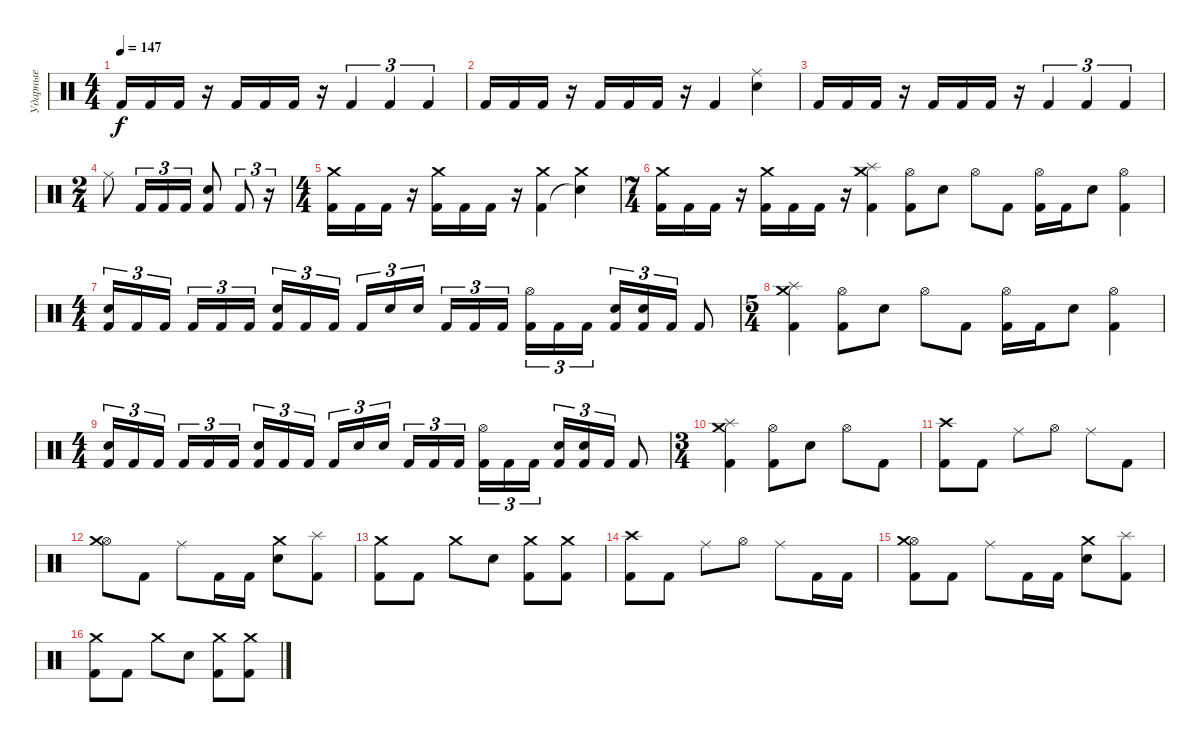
\track ("Ударные" "Ударные") {instrument percussion}
\staff {score}
\articulation defaults
\ts (4 4)
\tempo 147
\clef neutral
\ks c "Kick (hit) 2".16{dy f} "Kick (hit) 2".16 "Kick (hit) 2".16
r.16 "Kick (hit) 2".16 "Kick (hit) 2".16 "Kick (hit) 2".16 r.16 "Kick (hit) 2".4{tu (3 2)} "Kick (hit) 2".4{tu (3 2)} "Kick (hit) 2".4{tu (3 2)} |
"Kick (hit) 2".16 "Kick (hit) 2".16 "Kick (hit) 2".16 r.16 "Kick (hit) 2".16 "Kick (hit) 2".16 "Kick (hit) 2".16 r.16 "Kick (hit) 2".4 ("Ride (middle)" "Snare (hit)"{t}).4 |
"Kick (hit) 2".16 "Kick (hit) 2".16 "Kick (hit) 2".16 r.16 "Kick (hit) 2".16 "Kick (hit) 2".16 "Kick (hit) 2".16 r.16 "Kick (hit) 2".4{tu (3 2)} "Kick (hit) 2".4{tu (3 2)} "Kick (hit) 2".4{tu (3 2)} |
\ts (2 4)
"Ride (middle)".8 "Kick (hit) 2".16{tu (3 2)} "Kick (hit) 2".16{tu (3 2)} "Kick (hit) 2".16{tu (3 2)} ("Electric Snare (hit)" "Kick (hit) 2").8 "Kick (hit) 2".8{tu (3 2)} r.16{tu (3 2)} |
\ts (4 4)
("Crash medium (hit)" "Kick (hit) 2").16 "Kick (hit) 2".16 "Kick (hit) 2".16 r.16 ("Crash medium (hit)" "Kick (hit) 2").16 "Kick (hit) 2".16 "Kick (hit) 2".16 r.16 ("Crash medium (hit)" "Kick (hit) 2").4 ("Crash medium (hit)" "Snare (hit)"{t}).4 |
\ts (7 4)
("Crash medium (hit)" "Kick (hit) 2").16 "Kick (hit) 2".16 "Kick (hit) 2".16 r.16 ("Crash medium (hit)" "Kick (hit) 2").16 "Kick (hit) 2".16 "Kick (hit) 2".16 r.16 ("Crash medium (hit)" "Splash (hit)" "Kick (hit) 2").4 ("Hi-Hat (open)" "Kick (hit) 2").8 "Electric Snare (hit)".8 "Hi-Hat (open)".8 "Kick (hit) 2".8 ("Hi-Hat (open)" "Kick (hit) 2").16 "Kick (hit) 2".16 "Electric Snare (hit)".8 ("Hi-Hat (open)" "Kick (hit) 2").4 |
\ts (4 4)
("Electric Snare (hit)" "Kick (hit) 2").16{tu (3 2)} "Kick (hit) 2".16{tu (3 2)} "Kick (hit) 2".16{tu (3 2) beam splitsecondary} "Kick (hit) 2".16{tu (3 2)} "Kick (hit) 2".16{tu (3 2)} "Kick (hit) 2".16{tu (3 2)} ("Electric Snare (hit)" "Kick (hit) 2").16{tu (3 2)} "Kick (hit) 2".16{tu (3 2)} "Kick (hit) 2".16{tu (3 2) beam splitsecondary} "Kick (hit) 2".16{tu (3 2)} "Electric Snare (hit)".16{tu (3 2)} "Electric Snare (hit)".16{tu (3 2)} "Kick (hit) 2".16{tu (3 2)} "Kick (hit) 2".16{tu (3 2)} "Kick (hit) 2".16{tu (3 2) beam splitsecondary} ("Hi-Hat (open)" "Kick (hit) 2").16{tu (3 2)} "Kick (hit) 2".16{tu (3 2)} "Kick (hit) 2".16{tu (3 2)} ("Electric Snare (hit)" "Kick (hit) 2").16{tu (3 2)} ("Electric Snare (hit)" "Kick (hit) 2").16{tu (3 2)} "Kick (hit) 2".16{tu (3 2)} "Kick (hit) 2".8 |
\ts (5 4)
("Crash medium (hit)" "Splash (hit)" "Kick (hit) 2").4 ("Hi-Hat (open)" "Kick (hit) 2").8 "Electric Snare (hit)".8 "Hi-Hat (open)".8 "Kick (hit) 2".8 ("Hi-Hat (open)" "Kick (hit) 2").16 "Kick (hit) 2".16 "Electric Snare (hit)".8 ("Hi-Hat (open)" "Kick (hit) 2").4 |
\ts (4 4)
("Electric Snare (hit)" "Kick (hit) 2").16{tu (3 2)} "Kick (hit) 2".16{tu (3 2)} "Kick (hit) 2".16{tu (3 2) beam splitsecondary} "Kick (hit) 2".16{tu (3 2)} "Kick (hit) 2".16{tu (3 2)} "Kick (hit) 2".16{tu (3 2)} ("Electric Snare (hit)" "Kick (hit) 2").16{tu (3 2)} "Kick (hit) 2".16{tu (3 2)} "Kick (hit) 2".16{tu (3 2) beam splitsecondary} "Kick (hit) 2".16{tu (3 2)} "Electric Snare (hit)".16{tu (3 2)} "Electric Snare (hit)".16{tu (3 2)} "Kick (hit) 2".16{tu (3 2)} "Kick (hit) 2".16{tu (3 2)} "Kick (hit) 2".16{tu (3 2) beam splitsecondary} ("Hi-Hat (open)" "Kick (hit) 2").16{tu (3 2)} "Kick (hit) 2".16{tu (3 2)} "Kick (hit) 2".16{tu (3 2)} ("Electric Snare (hit)" "Kick (hit) 2").16{tu (3 2)} ("Electric Snare (hit)" "Kick (hit) 2").16{tu (3 2)} "Kick (hit) 2".16{tu (3 2)} "Kick (hit) 2".8 |
\ts (3 4)
("Crash medium (hit)" "Splash (hit)" "Kick (hit) 2").4 ("Hi-Hat (open)" "Kick (hit) 2").8 "Electric Snare (hit)".8 "Hi-Hat (open)".8 "Kick (hit) 2".8 |
("Crash high (hit)" "Kick (hit) 2").8 "Kick (hit) 2".8 "Ride (middle)".8 "Hi-Hat (open)".8 "Ride (middle)".8 "Kick (hit) 2".8 |
("Hi-Hat (open)" "Crash medium (hit)").8 "Kick (hit) 2".8 "Ride (middle)".8 "Kick (hit) 2".16 "Kick (hit) 2".16 ("Crash medium (hit)" "Electric Snare (hit)").8 ("Splash (hit)" "Kick (hit) 2").8 |
("Crash medium (hit)" "Kick (hit) 2").8 "Kick (hit) 2".8 "Crash medium (hit)".8 "Electric Snare (hit)".8 ("Crash medium (hit)" "Kick (hit) 2").8 ("Crash medium (hit)" "Kick (hit) 2").8 |
("Crash high (hit)" "Kick (hit) 2").8 "Kick (hit) 2".8 "Ride (middle)".8 "Hi-Hat (open)".8 "Ride (middle)".8 "Kick (hit) 2".16 "Kick (hit) 2".16 |
("Hi-Hat (open)" "Crash medium (hit)" "Kick (hit) 2").8 "Kick (hit) 2".8 "Ride (middle)".8 "Kick (hit) 2".16 "Kick (hit) 2".16 ("Crash medium (hit)" "Electric Snare (hit)").8 ("Splash (hit)" "Kick (hit) 2").8 |
("Crash medium (hit)" "Kick (hit) 2").8 "Kick (hit) 2".8 "Crash medium (hit)".8 "Electric Snare (hit)".8 ("Crash medium (hit)" "Kick (hit) 2").8 ("Crash medium (hit)" "Kick (hit) 2").8
